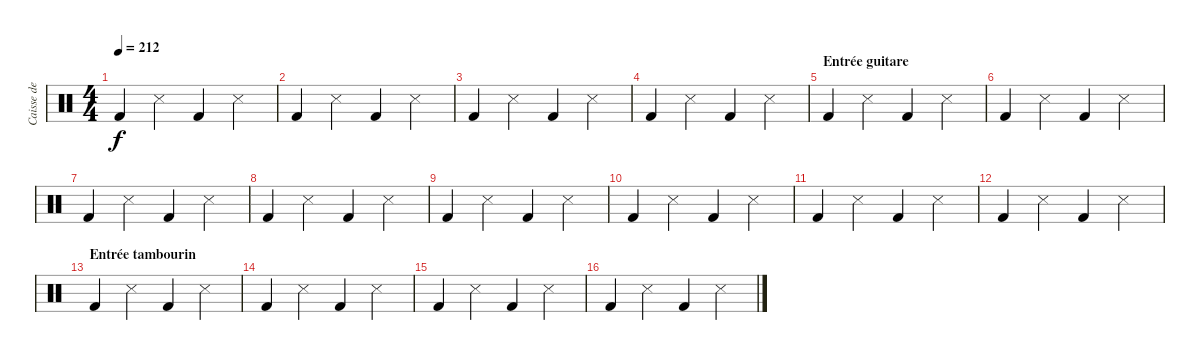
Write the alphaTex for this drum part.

\track ("Caisse de guitare" "Caisse de ") {instrument percussion}
\staff {score}
\articulation defaults
\ts (4 4)
\tempo 212
\clef neutral
\ks c "Kick (hit) 2".4{dy f} "Metronome (hit)".4 "Kick (hit) 2".4 "Metronome (hit)".4
|
"Kick (hit) 2".4 "Metronome (hit)".4 "Kick (hit) 2".4 "Metronome (hit)".4 |
"Kick (hit) 2".4 "Metronome (hit)".4 "Kick (hit) 2".4 "Metronome (hit)".4 |
"Kick (hit) 2".4 "Metronome (hit)".4 "Kick (hit) 2".4 "Metronome (hit)".4 |
\section ("" "Entrée guitare")
"Kick (hit) 2".4 "Metronome (hit)".4 "Kick (hit) 2".4 "Metronome (hit)".4 |
"Kick (hit) 2".4 "Metronome (hit)".4 "Kick (hit) 2".4 "Metronome (hit)".4 |
"Kick (hit) 2".4 "Metronome (hit)".4 "Kick (hit) 2".4 "Metronome (hit)".4 |
"Kick (hit) 2".4 "Metronome (hit)".4 "Kick (hit) 2".4 "Metronome (hit)".4 |
"Kick (hit) 2".4 "Metronome (hit)".4 "Kick (hit) 2".4 "Metronome (hit)".4 |
"Kick (hit) 2".4 "Metronome (hit)".4 "Kick (hit) 2".4 "Metronome (hit)".4 |
"Kick (hit) 2".4 "Metronome (hit)".4 "Kick (hit) 2".4 "Metronome (hit)".4 |
"Kick (hit) 2".4 "Metronome (hit)".4 "Kick (hit) 2".4 "Metronome (hit)".4 |
\section ("" "Entrée tambourin")
"Kick (hit) 2".4 "Metronome (hit)".4 "Kick (hit) 2".4 "Metronome (hit)".4 |
"Kick (hit) 2".4 "Metronome (hit)".4 "Kick (hit) 2".4 "Metronome (hit)".4 |
"Kick (hit) 2".4 "Metronome (hit)".4 "Kick (hit) 2".4 "Metronome (hit)".4 |
"Kick (hit) 2".4 "Metronome (hit)".4 "Kick (hit) 2".4 "Metronome (hit)".4
